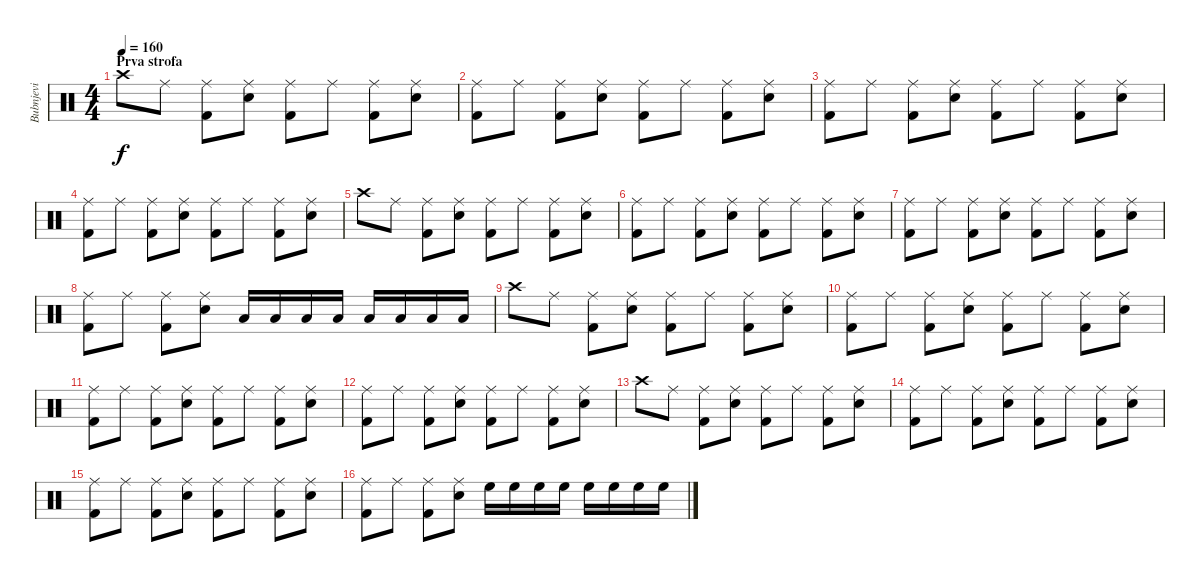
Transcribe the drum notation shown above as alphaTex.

\track ("Bubnjevi" "Bubnjevi") {instrument percussion}
\staff {score}
\articulation defaults
\ts (4 4)
\section ("" "Prva strofa")
\tempo 160
\clef neutral
\ks c "Crash high (hit)".8{dy f} "Ride (middle)".8
("Ride (middle)" "Kick (hit) 2").8 ("Ride (middle)" "Snare (hit) 2").8 ("Ride (middle)" "Kick (hit) 2").8 "Ride (middle)".8 ("Ride (middle)" "Kick (hit) 2").8 ("Ride (middle)" "Snare (hit) 2").8 |
("Ride (middle)" "Kick (hit) 2").8 "Ride (middle)".8 ("Ride (middle)" "Kick (hit) 2").8 ("Ride (middle)" "Snare (hit) 2").8 ("Ride (middle)" "Kick (hit) 2").8 "Ride (middle)".8 ("Ride (middle)" "Kick (hit) 2").8 ("Ride (middle)" "Snare (hit) 2").8 |
("Ride (middle)" "Kick (hit) 2").8 "Ride (middle)".8 ("Ride (middle)" "Kick (hit) 2").8 ("Ride (middle)" "Snare (hit) 2").8 ("Ride (middle)" "Kick (hit) 2").8 "Ride (middle)".8 ("Ride (middle)" "Kick (hit) 2").8 ("Ride (middle)" "Snare (hit) 2").8 |
("Ride (middle)" "Kick (hit) 2").8 "Ride (middle)".8 ("Ride (middle)" "Kick (hit) 2").8 ("Ride (middle)" "Snare (hit) 2").8 ("Ride (middle)" "Kick (hit) 2").8 "Ride (middle)".8 ("Ride (middle)" "Kick (hit) 2").8 ("Ride (middle)" "Snare (hit) 2").8 |
"Crash high (hit)".8 "Ride (middle)".8 ("Ride (middle)" "Kick (hit) 2").8 ("Ride (middle)" "Snare (hit) 2").8 ("Ride (middle)" "Kick (hit) 2").8 "Ride (middle)".8 ("Ride (middle)" "Kick (hit) 2").8 ("Ride (middle)" "Snare (hit) 2").8 |
("Ride (middle)" "Kick (hit) 2").8 "Ride (middle)".8 ("Ride (middle)" "Kick (hit) 2").8 ("Ride (middle)" "Snare (hit) 2").8 ("Ride (middle)" "Kick (hit) 2").8 "Ride (middle)".8 ("Ride (middle)" "Kick (hit) 2").8 ("Ride (middle)" "Snare (hit) 2").8 |
("Ride (middle)" "Kick (hit) 2").8 "Ride (middle)".8 ("Ride (middle)" "Kick (hit) 2").8 ("Ride (middle)" "Snare (hit) 2").8 ("Ride (middle)" "Kick (hit) 2").8 "Ride (middle)".8 ("Ride (middle)" "Kick (hit) 2").8 ("Ride (middle)" "Snare (hit) 2").8 |
("Ride (middle)" "Kick (hit) 2").8 "Ride (middle)".8 ("Ride (middle)" "Kick (hit) 2").8 ("Ride (middle)" "Snare (hit) 2").8 "Low Tom (hit)".16 "Low Tom (hit)".16 "Low Tom (hit)".16 "Low Tom (hit)".16 "Low Tom (hit)".16 "Low Tom (hit)".16 "Low Tom (hit)".16 "Low Tom (hit)".16 |
"Crash high (hit)".8 "Ride (middle)".8 ("Ride (middle)" "Kick (hit) 2").8 ("Ride (middle)" "Snare (hit) 2").8 ("Ride (middle)" "Kick (hit) 2").8 "Ride (middle)".8 ("Ride (middle)" "Kick (hit) 2").8 ("Ride (middle)" "Snare (hit) 2").8 |
("Ride (middle)" "Kick (hit) 2").8 "Ride (middle)".8 ("Ride (middle)" "Kick (hit) 2").8 ("Ride (middle)" "Snare (hit) 2").8 ("Ride (middle)" "Kick (hit) 2").8 "Ride (middle)".8 ("Ride (middle)" "Kick (hit) 2").8 ("Ride (middle)" "Snare (hit) 2").8 |
("Ride (middle)" "Kick (hit) 2").8 "Ride (middle)".8 ("Ride (middle)" "Kick (hit) 2").8 ("Ride (middle)" "Snare (hit) 2").8 ("Ride (middle)" "Kick (hit) 2").8 "Ride (middle)".8 ("Ride (middle)" "Kick (hit) 2").8 ("Ride (middle)" "Snare (hit) 2").8 |
("Ride (middle)" "Kick (hit) 2").8 "Ride (middle)".8 ("Ride (middle)" "Kick (hit) 2").8 ("Ride (middle)" "Snare (hit) 2").8 ("Ride (middle)" "Kick (hit) 2").8 "Ride (middle)".8 ("Ride (middle)" "Kick (hit) 2").8 ("Ride (middle)" "Snare (hit) 2").8 |
"Crash high (hit)".8 "Ride (middle)".8 ("Ride (middle)" "Kick (hit) 2").8 ("Ride (middle)" "Snare (hit) 2").8 ("Ride (middle)" "Kick (hit) 2").8 "Ride (middle)".8 ("Ride (middle)" "Kick (hit) 2").8 ("Ride (middle)" "Snare (hit) 2").8 |
("Ride (middle)" "Kick (hit) 2").8 "Ride (middle)".8 ("Ride (middle)" "Kick (hit) 2").8 ("Ride (middle)" "Snare (hit) 2").8 ("Ride (middle)" "Kick (hit) 2").8 "Ride (middle)".8 ("Ride (middle)" "Kick (hit) 2").8 ("Ride (middle)" "Snare (hit) 2").8 |
("Ride (middle)" "Kick (hit) 2").8 "Ride (middle)".8 ("Ride (middle)" "Kick (hit) 2").8 ("Ride (middle)" "Snare (hit) 2").8 ("Ride (middle)" "Kick (hit) 2").8 "Ride (middle)".8 ("Ride (middle)" "Kick (hit) 2").8 ("Ride (middle)" "Snare (hit) 2").8 |
("Ride (middle)" "Kick (hit) 2").8 "Ride (middle)".8 ("Ride (middle)" "Kick (hit) 2").8 ("Ride (middle)" "Snare (hit) 2").8 "High Floor Tom (hit)".16 "High Floor Tom (hit)".16 "High Floor Tom (hit)".16 "High Floor Tom (hit)".16 "High Floor Tom (hit)".16 "High Floor Tom (hit)".16 "High Floor Tom (hit)".16 "High Floor Tom (hit)".16
